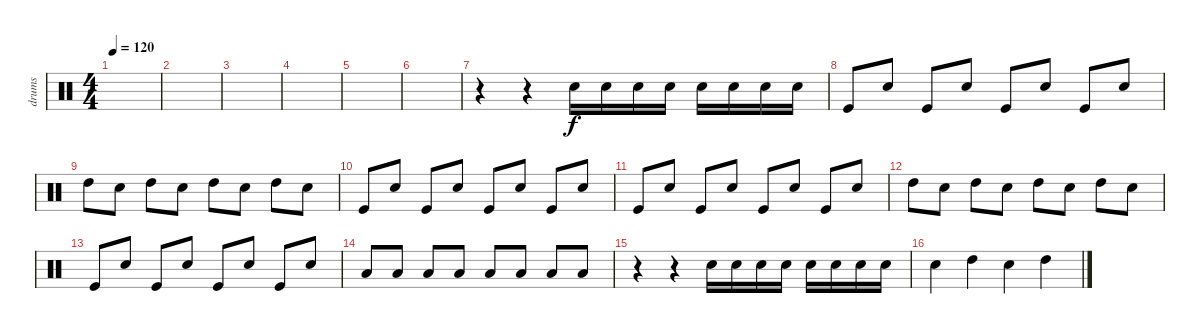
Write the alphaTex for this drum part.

\track ("drums" "drums") {instrument percussion}
\staff {score}
\articulation defaults
\ts (4 4)
\tempo 120
\clef neutral
\ks c
|
|
|
|
|
|
r.4 r.4 "Snare (hit) 2".16 "Snare (hit) 2".16 "Snare (hit) 2".16 "Snare (hit) 2".16 "Snare (hit) 2".16 "Snare (hit) 2".16 "Snare (hit) 2".16 "Snare (hit) 2".16 |
"Kick (hit)".8 "Snare (hit) 2".8 "Kick (hit)".8 "Snare (hit) 2".8 "Kick (hit)".8 "Snare (hit) 2".8 "Kick (hit)".8 "Snare (hit) 2".8 |
"High Tom (hit)".8 "Snare (hit) 2".8 "High Tom (hit)".8 "Snare (hit) 2".8 "High Tom (hit)".8 "Snare (hit) 2".8 "High Tom (hit)".8 "Snare (hit) 2".8 |
"Kick (hit)".8 "Snare (hit) 2".8 "Kick (hit)".8 "Snare (hit) 2".8 "Kick (hit)".8 "Snare (hit) 2".8 "Kick (hit)".8 "Snare (hit) 2".8 |
"Kick (hit)".8 "Snare (hit) 2".8 "Kick (hit)".8 "Snare (hit) 2".8 "Kick (hit)".8 "Snare (hit) 2".8 "Kick (hit)".8 "Snare (hit) 2".8 |
"High Tom (hit)".8 "Snare (hit) 2".8 "High Tom (hit)".8 "Snare (hit) 2".8 "High Tom (hit)".8 "Snare (hit) 2".8 "High Tom (hit)".8 "Snare (hit) 2".8 |
"Kick (hit)".8 "Snare (hit) 2".8 "Kick (hit)".8 "Snare (hit) 2".8 "Kick (hit)".8 "Snare (hit) 2".8 "Kick (hit)".8 "Snare (hit) 2".8 |
"Low Tom (hit)".8 "Low Tom (hit)".8 "Low Tom (hit)".8 "Low Tom (hit)".8 "Low Tom (hit)".8 "Low Tom (hit)".8 "Low Tom (hit)".8 "Low Tom (hit)".8 |
r.4 r.4 "Snare (hit) 2".16 "Snare (hit) 2".16 "Snare (hit) 2".16 "Snare (hit) 2".16 "Snare (hit) 2".16 "Snare (hit) 2".16 "Snare (hit) 2".16 "Snare (hit) 2".16 |
"Snare (hit) 2".4 "High Tom (hit)".4 "Snare (hit) 2".4 "High Tom (hit)".4
